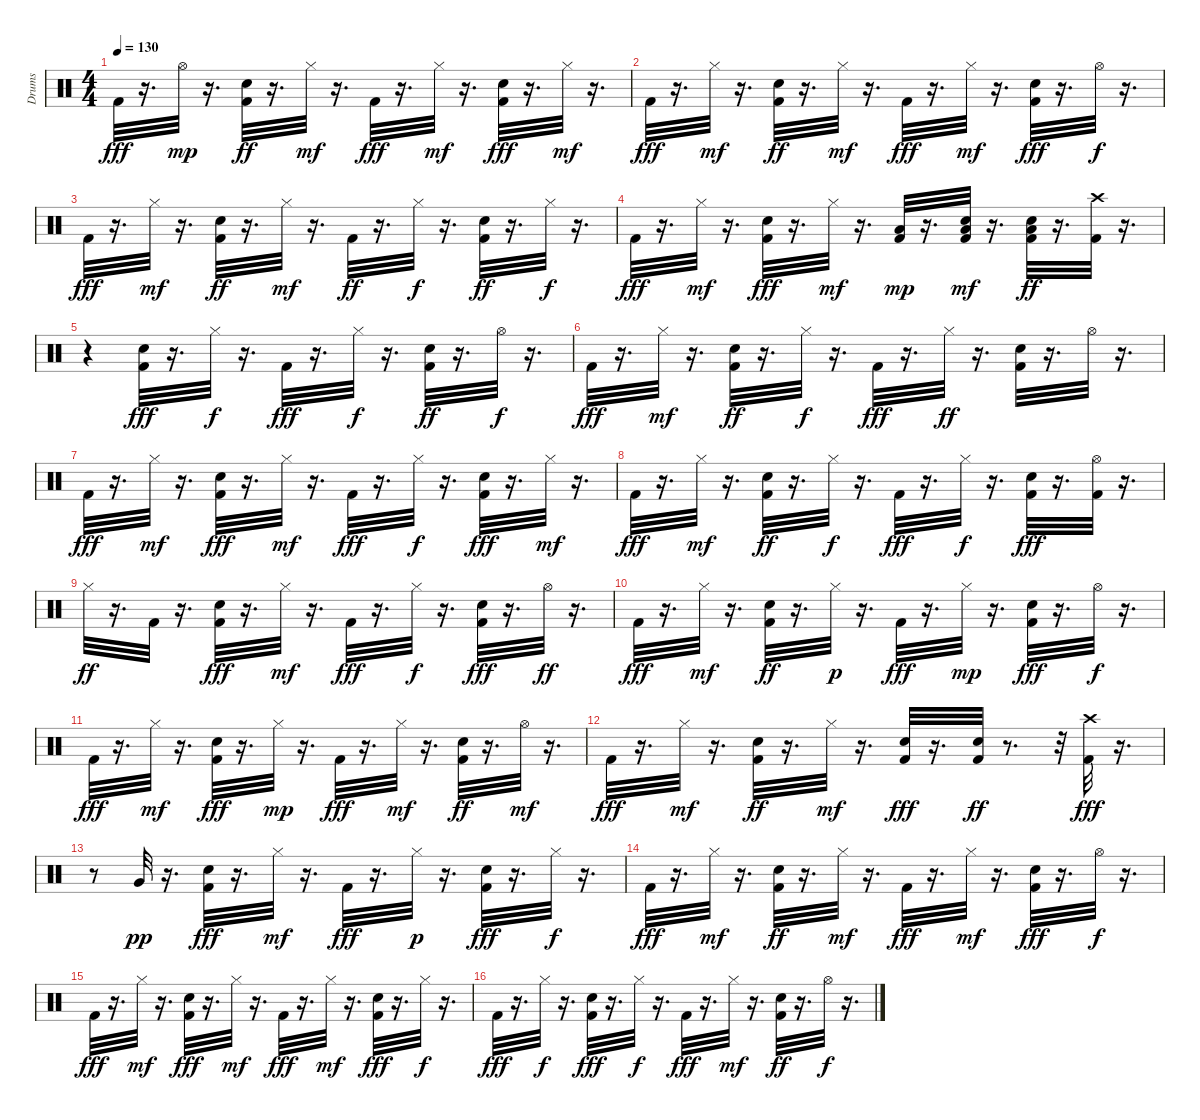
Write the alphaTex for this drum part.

\track ("Drums               " "Drums     ") {instrument percussion}
\staff {score}
\articulation defaults
\ts (4 4)
\tempo 130
\clef neutral
\ks c "Kick (hit) 2".32{dy fff}
r.16{d} "Hi-Hat (open)".32{dy mp} r.16{d} ("Kick (hit) 2" "Snare (hit) 2").32{dy ff} r.16{d} "Hi-Hat (closed)".32{dy mf} r.16{d} "Kick (hit) 2".32{dy fff} r.16{d} "Hi-Hat (closed)".32{dy mf} r.16{d} ("Kick (hit) 2" "Snare (hit) 2").32{dy fff} r.16{d} "Hi-Hat (closed)".32{dy mf} r.16{d} |
"Kick (hit) 2".32{dy fff} r.16{d} "Hi-Hat (closed)".32{dy mf} r.16{d} ("Kick (hit) 2" "Snare (hit) 2").32{dy ff} r.16{d} "Hi-Hat (closed)".32{dy mf} r.16{d} "Kick (hit) 2".32{dy fff} r.16{d} "Hi-Hat (closed)".32{dy mf} r.16{d} ("Kick (hit) 2" "Snare (hit) 2").32{dy fff} r.16{d} "Hi-Hat (open)".32{dy f} r.16{d} |
"Kick (hit) 2".32{dy fff} r.16{d} "Hi-Hat (closed)".32{dy mf} r.16{d} ("Kick (hit) 2" "Snare (hit) 2").32{dy ff} r.16{d} "Hi-Hat (closed)".32{dy mf} r.16{d} "Kick (hit) 2".32{dy ff} r.16{d} "Hi-Hat (closed)".32{dy f} r.16{d} ("Kick (hit) 2" "Snare (hit) 2").32{dy ff} r.16{d} "Hi-Hat (closed)".32{dy f} r.16{d} |
"Kick (hit) 2".32{dy fff} r.16{d} "Hi-Hat (closed)".32{dy mf} r.16{d} ("Kick (hit) 2" "Snare (hit) 2").32{dy fff} r.16{d} "Hi-Hat (closed)".32{dy mf} r.16{d} ("Kick (hit) 2" "Low Floor Tom (hit)").32{dy mp} r.16{d} ("Kick (hit) 2" "Snare (hit) 2" "Low Floor Tom (hit)").32{dy mf} r.16{d} ("Kick (hit) 2" "Snare (hit) 2" "Low Floor Tom (hit)").32{dy ff} r.16{d} ("Kick (hit) 2" "Crash high (hit)").32 r.16{d} |
r.4 ("Kick (hit) 2" "Snare (hit) 2").32{dy fff} r.16{d} "Hi-Hat (closed)".32{dy f} r.16{d} "Kick (hit) 2".32{dy fff} r.16{d} "Hi-Hat (closed)".32{dy f} r.16{d} ("Kick (hit) 2" "Snare (hit) 2").32{dy ff} r.16{d} "Hi-Hat (open)".32{dy f} r.16{d} |
"Kick (hit) 2".32{dy fff} r.16{d} "Hi-Hat (closed)".32{dy mf} r.16{d} ("Kick (hit) 2" "Snare (hit) 2").32{dy ff} r.16{d} "Hi-Hat (closed)".32{dy f} r.16{d} "Kick (hit) 2".32{dy fff} r.16{d} "Hi-Hat (closed)".32{dy ff} r.16{d} ("Kick (hit) 2" "Snare (hit) 2").32 r.16{d} "Hi-Hat (open)".32 r.16{d} |
"Kick (hit) 2".32{dy fff} r.16{d} "Hi-Hat (closed)".32{dy mf} r.16{d} ("Kick (hit) 2" "Snare (hit) 2").32{dy fff} r.16{d} "Hi-Hat (closed)".32{dy mf} r.16{d} "Kick (hit) 2".32{dy fff} r.16{d} "Hi-Hat (closed)".32{dy f} r.16{d} ("Kick (hit) 2" "Snare (hit) 2").32{dy fff} r.16{d} "Hi-Hat (closed)".32{dy mf} r.16{d} |
"Kick (hit) 2".32{dy fff} r.16{d} "Hi-Hat (closed)".32{dy mf} r.16{d} ("Kick (hit) 2" "Snare (hit) 2").32{dy ff} r.16{d} "Hi-Hat (closed)".32{dy f} r.16{d} "Kick (hit) 2".32{dy fff} r.16{d} "Hi-Hat (closed)".32{dy f} r.16{d} ("Kick (hit) 2" "Snare (hit) 2").32{dy fff} r.16{d} ("Kick (hit) 2" "Hi-Hat (open)").32 r.16{d} |
"Hi-Hat (closed)".32{dy ff} r.16{d} "Kick (hit) 2".32 r.16{d} ("Kick (hit) 2" "Snare (hit) 2").32{dy fff} r.16{d} "Hi-Hat (closed)".32{dy mf} r.16{d} "Kick (hit) 2".32{dy fff} r.16{d} "Hi-Hat (closed)".32{dy f} r.16{d} ("Kick (hit) 2" "Snare (hit) 2").32{dy fff} r.16{d} "Hi-Hat (open)".32{dy ff} r.16{d} |
"Kick (hit) 2".32{dy fff} r.16{d} "Hi-Hat (closed)".32{dy mf} r.16{d} ("Kick (hit) 2" "Snare (hit) 2").32{dy ff} r.16{d} "Hi-Hat (closed)".32{dy p} r.16{d} "Kick (hit) 2".32{dy fff} r.16{d} "Hi-Hat (closed)".32{dy mp} r.16{d} ("Kick (hit) 2" "Snare (hit) 2").32{dy fff} r.16{d} "Hi-Hat (open)".32{dy f} r.16{d} |
"Kick (hit) 2".32{dy fff} r.16{d} "Hi-Hat (closed)".32{dy mf} r.16{d} ("Kick (hit) 2" "Snare (hit) 2").32{dy fff} r.16{d} "Hi-Hat (closed)".32{dy mp} r.16{d} "Kick (hit) 2".32{dy fff} r.16{d} "Hi-Hat (closed)".32{dy mf} r.16{d} ("Kick (hit) 2" "Snare (hit) 2").32{dy ff} r.16{d} "Hi-Hat (open)".32{dy mf} r.16{d} |
"Kick (hit) 2".32{dy fff} r.16{d} "Hi-Hat (closed)".32{dy mf} r.16{d} ("Kick (hit) 2" "Snare (hit) 2").32{dy ff} r.16{d} "Hi-Hat (closed)".32{dy mf} r.16{d} ("Kick (hit) 2" "Snare (hit) 2").32{dy fff} r.16{d} ("Kick (hit) 2" "Snare (hit) 2").32{dy ff} r.8{d} r.32 ("Kick (hit) 2" "Crash high (hit)").32{dy fff} r.16{d} |
r.8 "Very Low Tom (hit)".32{dy pp} r.16{d} ("Kick (hit) 2" "Snare (hit) 2").32{dy fff} r.16{d} "Hi-Hat (closed)".32{dy mf} r.16{d} "Kick (hit) 2".32{dy fff} r.16{d} "Hi-Hat (closed)".32{dy p} r.16{d} ("Kick (hit) 2" "Snare (hit) 2").32{dy fff} r.16{d} "Hi-Hat (closed)".32{dy f} r.16{d} |
"Kick (hit) 2".32{dy fff} r.16{d} "Hi-Hat (closed)".32{dy mf} r.16{d} ("Kick (hit) 2" "Snare (hit) 2").32{dy ff} r.16{d} "Hi-Hat (closed)".32{dy mf} r.16{d} "Kick (hit) 2".32{dy fff} r.16{d} "Hi-Hat (closed)".32{dy mf} r.16{d} ("Kick (hit) 2" "Snare (hit) 2").32{dy fff} r.16{d} "Hi-Hat (open)".32{dy f} r.16{d} |
"Kick (hit) 2".32{dy fff} r.16{d} "Hi-Hat (closed)".32{dy mf} r.16{d} ("Kick (hit) 2" "Snare (hit) 2").32{dy fff} r.16{d} "Hi-Hat (closed)".32{dy mf} r.16{d} "Kick (hit) 2".32{dy fff} r.16{d} "Hi-Hat (closed)".32{dy mf} r.16{d} ("Kick (hit) 2" "Snare (hit) 2").32{dy fff} r.16{d} "Hi-Hat (closed)".32{dy f} r.16{d} |
"Kick (hit) 2".32{dy fff} r.16{d} "Hi-Hat (closed)".32{dy f} r.16{d} ("Kick (hit) 2" "Snare (hit) 2").32{dy fff} r.16{d} "Hi-Hat (closed)".32{dy f} r.16{d} "Kick (hit) 2".32{dy fff} r.16{d} "Hi-Hat (closed)".32{dy mf} r.16{d} ("Kick (hit) 2" "Snare (hit) 2").32{dy ff} r.16{d} "Hi-Hat (open)".32{dy f} r.16{d}
